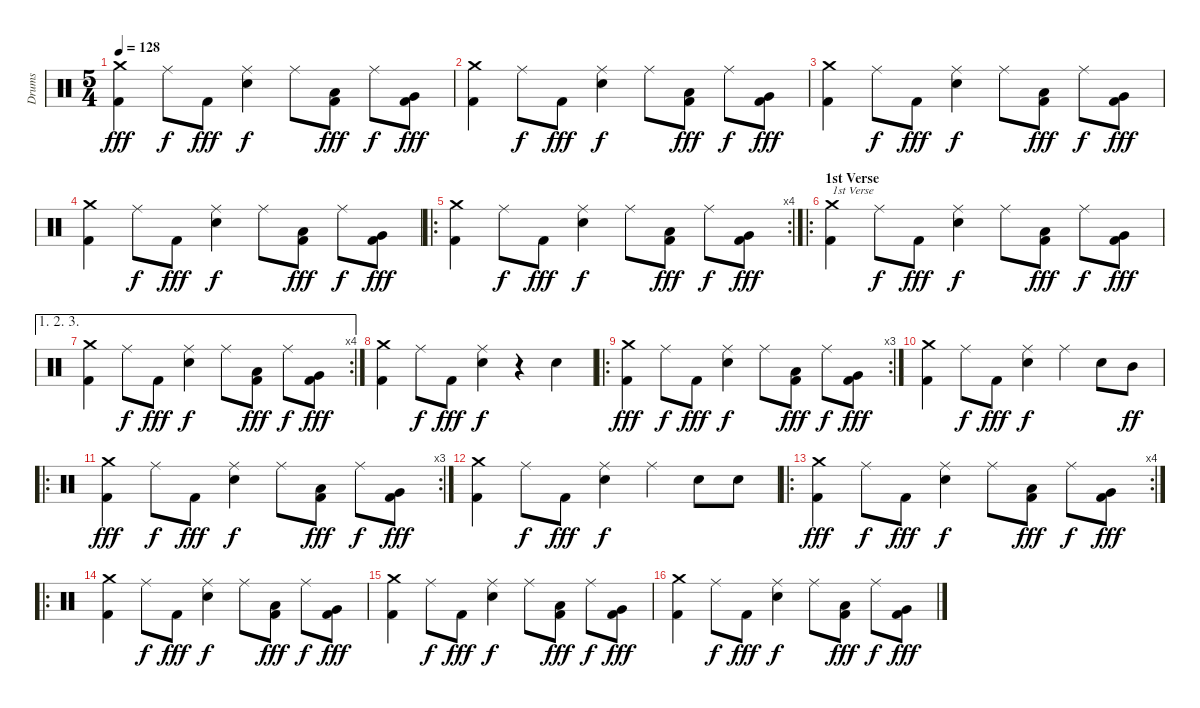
\track ("Drums" "Drums") {instrument percussion}
\staff {score}
\articulation defaults
\ts (5 4)
\tempo 128
\clef neutral
\ks c
("Crash medium (hit)" "Kick (hit) 2").4{dy fff} "Ride (middle)".8{dy f} "Kick (hit) 2".8{dy fff} ("Ride (middle)" "Snare (hit) 2").4{dy f} "Ride (middle)".8 ("Low Tom (hit)" "Kick (hit) 2").8{dy fff} "Ride (middle)".8{dy f} ("Very Low Tom (hit)" "Kick (hit) 2").8{dy fff} |
("Crash medium (hit)" "Kick (hit) 2").4 "Ride (middle)".8{dy f} "Kick (hit) 2".8{dy fff} ("Ride (middle)" "Snare (hit) 2").4{dy f} "Ride (middle)".8 ("Low Tom (hit)" "Kick (hit) 2").8{dy fff} "Ride (middle)".8{dy f} ("Very Low Tom (hit)" "Kick (hit) 2").8{dy fff} |
("Crash medium (hit)" "Kick (hit) 2").4 "Ride (middle)".8{dy f} "Kick (hit) 2".8{dy fff} ("Ride (middle)" "Snare (hit) 2").4{dy f} "Ride (middle)".8 ("Low Tom (hit)" "Kick (hit) 2").8{dy fff} "Ride (middle)".8{dy f} ("Very Low Tom (hit)" "Kick (hit) 2").8{dy fff} |
("Crash medium (hit)" "Kick (hit) 2").4 "Ride (middle)".8{dy f} "Kick (hit) 2".8{dy fff} ("Ride (middle)" "Snare (hit) 2").4{dy f} "Ride (middle)".8 ("Low Tom (hit)" "Kick (hit) 2").8{dy fff} "Ride (middle)".8{dy f} ("Very Low Tom (hit)" "Kick (hit) 2").8{dy fff} |
\ro
\rc 4
("Crash medium (hit)" "Kick (hit) 2").4 "Ride (middle)".8{dy f} "Kick (hit) 2".8{dy fff} ("Ride (middle)" "Snare (hit) 2").4{dy f} "Ride (middle)".8 ("Low Tom (hit)" "Kick (hit) 2").8{dy fff} "Ride (middle)".8{dy f} ("Very Low Tom (hit)" "Kick (hit) 2").8{dy fff} |
\ro
\section ("" "1st Verse")
("Crash medium (hit)" "Kick (hit) 2").4{txt "1st Verse"} "Ride (middle)".8{dy f} "Kick (hit) 2".8{dy fff} ("Ride (middle)" "Snare (hit) 2").4{dy f} "Ride (middle)".8 ("Low Tom (hit)" "Kick (hit) 2").8{dy fff} "Ride (middle)".8{dy f} ("Very Low Tom (hit)" "Kick (hit) 2").8{dy fff} |
\ae (1 2 3)
\rc 4
("Crash medium (hit)" "Kick (hit) 2").4 "Ride (middle)".8{dy f} "Kick (hit) 2".8{dy fff} ("Ride (middle)" "Snare (hit) 2").4{dy f} "Ride (middle)".8 ("Low Tom (hit)" "Kick (hit) 2").8{dy fff} "Ride (middle)".8{dy f} ("Very Low Tom (hit)" "Kick (hit) 2").8{dy fff} |
("Crash medium (hit)" "Kick (hit) 2").4 "Ride (middle)".8{dy f} "Kick (hit) 2".8{dy fff} ("Ride (middle)" "Snare (hit) 2").4{dy f} r.4 "Snare (hit) 2".4 |
\ro
\rc 3
("Crash medium (hit)" "Kick (hit) 2").4{dy fff} "Ride (middle)".8{dy f} "Kick (hit) 2".8{dy fff} ("Ride (middle)" "Snare (hit) 2").4{dy f} "Ride (middle)".8 ("Low Tom (hit)" "Kick (hit) 2").8{dy fff} "Ride (middle)".8{dy f} ("Very Low Tom (hit)" "Kick (hit) 2").8{dy fff} |
("Crash medium (hit)" "Kick (hit) 2").4 "Ride (middle)".8{dy f} "Kick (hit) 2".8{dy fff} ("Ride (middle)" "Snare (hit) 2").4{dy f} "Ride (middle)".4 "Snare (hit) 2".8 "Mid Tom (hit)".8{dy ff} |
\ro
\rc 3
("Crash medium (hit)" "Kick (hit) 2").4{dy fff} "Ride (middle)".8{dy f} "Kick (hit) 2".8{dy fff} ("Ride (middle)" "Snare (hit) 2").4{dy f} "Ride (middle)".8 ("Low Tom (hit)" "Kick (hit) 2").8{dy fff} "Ride (middle)".8{dy f} ("Very Low Tom (hit)" "Kick (hit) 2").8{dy fff} |
("Crash medium (hit)" "Kick (hit) 2").4 "Ride (middle)".8{dy f} "Kick (hit) 2".8{dy fff} ("Ride (middle)" "Snare (hit) 2").4{dy f} "Ride (middle)".4 "Snare (hit) 2".8 "Snare (hit) 2".8 |
\ro
\rc 4
("Crash medium (hit)" "Kick (hit) 2").4{dy fff} "Ride (middle)".8{dy f} "Kick (hit) 2".8{dy fff} ("Ride (middle)" "Snare (hit) 2").4{dy f} "Ride (middle)".8 ("Low Tom (hit)" "Kick (hit) 2").8{dy fff} "Ride (middle)".8{dy f} ("Very Low Tom (hit)" "Kick (hit) 2").8{dy fff} |
\ro
("Crash medium (hit)" "Kick (hit) 2").4 "Ride (middle)".8{dy f} "Kick (hit) 2".8{dy fff} ("Ride (middle)" "Snare (hit) 2").4{dy f} "Ride (middle)".8 ("Low Tom (hit)" "Kick (hit) 2").8{dy fff} "Ride (middle)".8{dy f} ("Very Low Tom (hit)" "Kick (hit) 2").8{dy fff} |
("Crash medium (hit)" "Kick (hit) 2").4 "Ride (middle)".8{dy f} "Kick (hit) 2".8{dy fff} ("Ride (middle)" "Snare (hit) 2").4{dy f} "Ride (middle)".8 ("Low Tom (hit)" "Kick (hit) 2").8{dy fff} "Ride (middle)".8{dy f} ("Very Low Tom (hit)" "Kick (hit) 2").8{dy fff} |
("Crash medium (hit)" "Kick (hit) 2").4 "Ride (middle)".8{dy f} "Kick (hit) 2".8{dy fff} ("Ride (middle)" "Snare (hit) 2").4{dy f} "Ride (middle)".8 ("Low Tom (hit)" "Kick (hit) 2").8{dy fff} "Ride (middle)".8{dy f} ("Very Low Tom (hit)" "Kick (hit) 2").8{dy fff}
